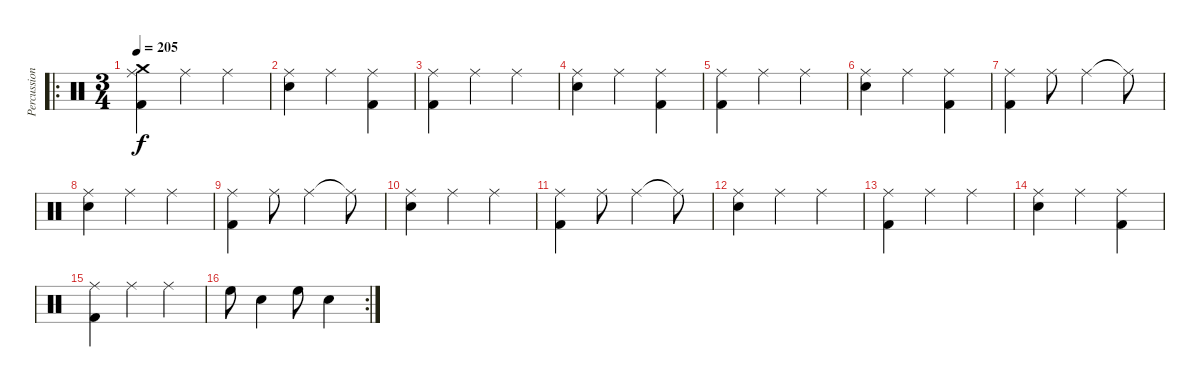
\track ("Percussion" "Percussion") {instrument percussion}
\staff {score}
\articulation defaults
\ro
\ts (3 4)
\tempo 205
\clef neutral
\ks c
("Ride (middle)" "Crash medium (hit)" "Kick (hit) 2").4{dy f} "Ride (middle)".4 "Ride (middle)".4 |
("Ride (middle)" "Electric Snare (hit)").4 "Ride (middle)".4 ("Ride (middle)" "Kick (hit) 2").4 |
("Ride (middle)" "Kick (hit) 2").4 "Ride (middle)".4 "Ride (middle)".4 |
("Ride (middle)" "Electric Snare (hit)").4 "Ride (middle)".4 ("Ride (middle)" "Kick (hit) 2").4 |
("Ride (middle)" "Kick (hit) 2").4 "Ride (middle)".4 "Ride (middle)".4 |
("Ride (middle)" "Electric Snare (hit)").4 "Ride (middle)".4 ("Ride (middle)" "Kick (hit) 2").4 |
("Ride (middle)" "Kick (hit) 2").4 "Ride (middle)".8 "Ride (middle)".4 "Ride (middle)"{t}.8 |
("Ride (middle)" "Electric Snare (hit)").4 "Ride (middle)".4 "Ride (middle)".4 |
("Ride (middle)" "Kick (hit) 2").4 "Ride (middle)".8 "Ride (middle)".4 "Ride (middle)"{t}.8 |
("Ride (middle)" "Electric Snare (hit)").4 "Ride (middle)".4 "Ride (middle)".4 |
("Ride (middle)" "Kick (hit) 2").4 "Ride (middle)".8 "Ride (middle)".4 "Ride (middle)"{t}.8 |
("Ride (middle)" "Electric Snare (hit)").4 "Ride (middle)".4 "Ride (middle)".4 |
("Ride (middle)" "Kick (hit) 2").4 "Ride (middle)".4 "Ride (middle)".4 |
("Ride (middle)" "Electric Snare (hit)").4 "Ride (middle)".4 ("Ride (middle)" "Kick (hit) 2").4 |
("Ride (middle)" "Kick (hit) 2").4 "Ride (middle)".4 "Ride (middle)".4 |
\rc 2 "High Floor Tom (hit)".8 "Electric Snare (hit)".4 "High Floor Tom (hit)".8 "Electric Snare (hit)".4
